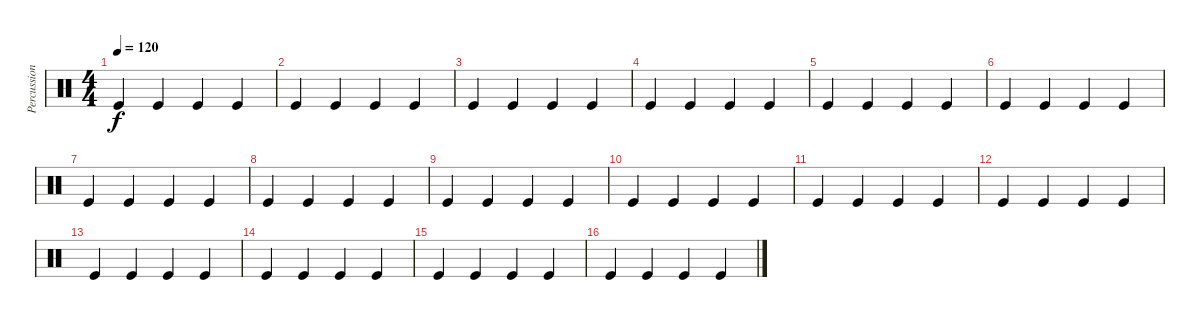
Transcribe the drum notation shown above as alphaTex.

\track ("Percussion" "Percussion") {instrument percussion}
\staff {score}
\articulation defaults
\ts (4 4)
\tempo 120
\clef neutral
\ks c "Kick (hit)".4{dy f} "Kick (hit)".4 "Kick (hit)".4 "Kick (hit)".4
|
"Kick (hit)".4 "Kick (hit)".4 "Kick (hit)".4 "Kick (hit)".4 |
"Kick (hit)".4 "Kick (hit)".4 "Kick (hit)".4 "Kick (hit)".4 |
"Kick (hit)".4 "Kick (hit)".4 "Kick (hit)".4 "Kick (hit)".4 |
"Kick (hit)".4 "Kick (hit)".4 "Kick (hit)".4 "Kick (hit)".4 |
"Kick (hit)".4 "Kick (hit)".4 "Kick (hit)".4 "Kick (hit)".4 |
"Kick (hit)".4 "Kick (hit)".4 "Kick (hit)".4 "Kick (hit)".4 |
"Kick (hit)".4 "Kick (hit)".4 "Kick (hit)".4 "Kick (hit)".4 |
"Kick (hit)".4 "Kick (hit)".4 "Kick (hit)".4 "Kick (hit)".4 |
"Kick (hit)".4 "Kick (hit)".4 "Kick (hit)".4 "Kick (hit)".4 |
"Kick (hit)".4 "Kick (hit)".4 "Kick (hit)".4 "Kick (hit)".4 |
"Kick (hit)".4 "Kick (hit)".4 "Kick (hit)".4 "Kick (hit)".4 |
"Kick (hit)".4 "Kick (hit)".4 "Kick (hit)".4 "Kick (hit)".4 |
"Kick (hit)".4 "Kick (hit)".4 "Kick (hit)".4 "Kick (hit)".4 |
"Kick (hit)".4 "Kick (hit)".4 "Kick (hit)".4 "Kick (hit)".4 |
"Kick (hit)".4 "Kick (hit)".4 "Kick (hit)".4 "Kick (hit)".4
